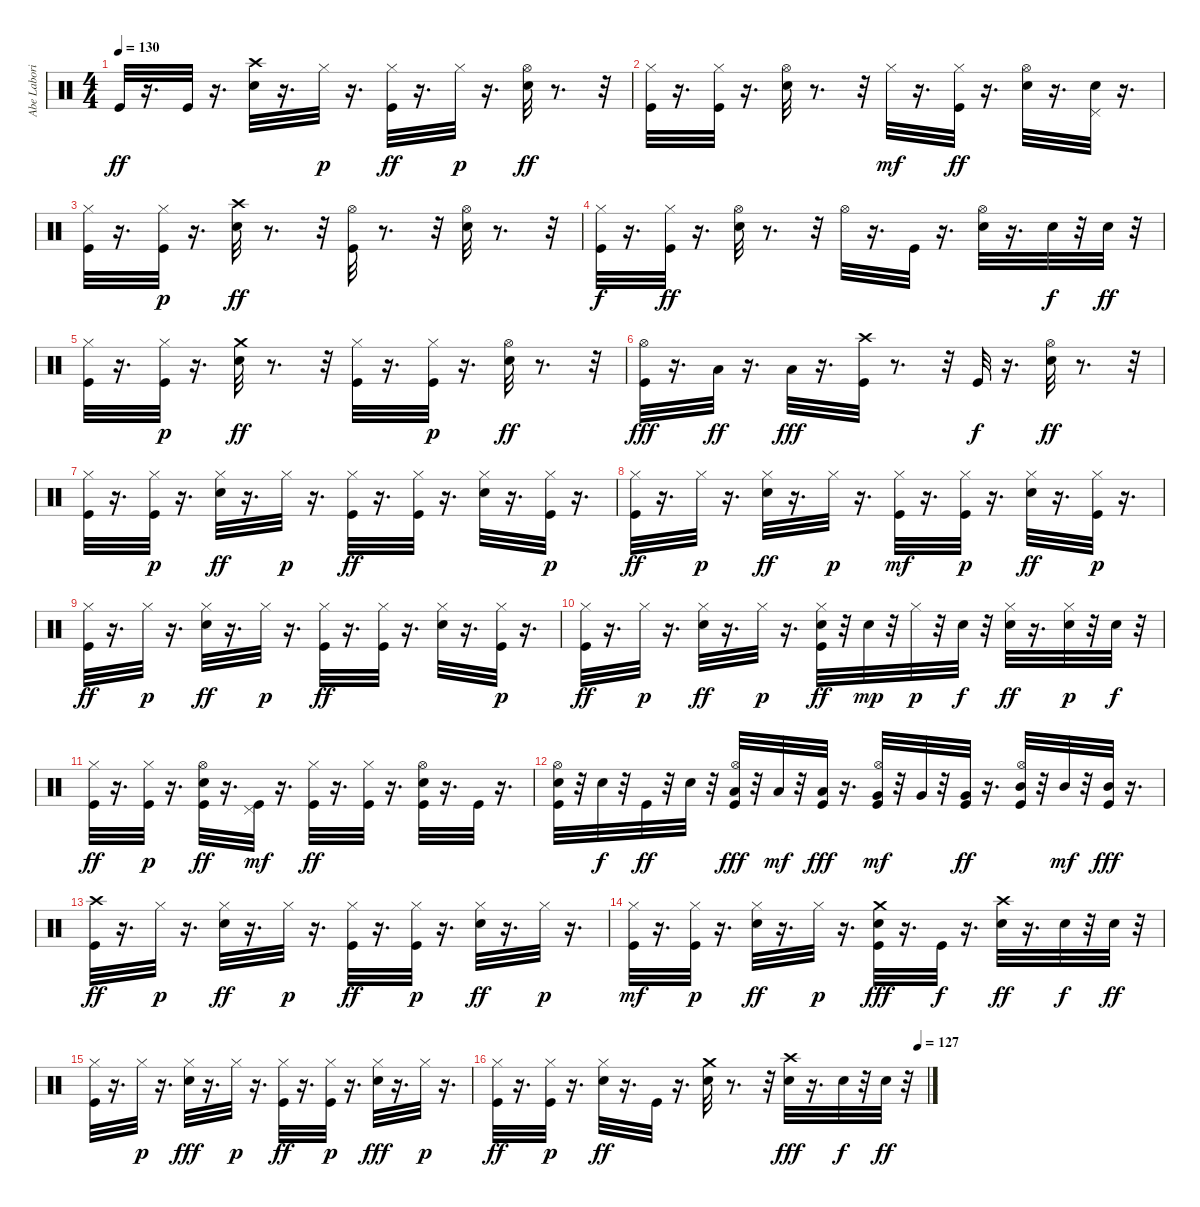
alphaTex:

\track ("Abe Laboriel, Jr." "Abe Labori") {instrument percussion}
\staff {score}
\articulation defaults
\ts (4 4)
\tempo 130
\clef neutral
\ks c "Kick (hit)".32{dy ff}
r.16{d} "Kick (hit)".32 r.16{d} ("Crash high (hit)" "Snare (hit) 2").32 r.16{d} "Hi-Hat (closed)".32{dy p} r.16{d} ("Kick (hit)" "Hi-Hat (closed)").32{dy ff} r.16{d} "Hi-Hat (closed)".32{dy p} r.16{d} ("Hi-Hat (open)" "Snare (hit) 2").32{dy ff} r.8{d} r.32 |
("Kick (hit)" "Hi-Hat (closed)").32 r.16{d} ("Hi-Hat (closed)" "Kick (hit)").32 r.16{d} ("Hi-Hat (open)" "Snare (hit) 2").32 r.8{d} r.32 "Hi-Hat (closed)".32{dy mf} r.16{d} ("Hi-Hat (closed)" "Kick (hit)").32{dy ff} r.16{d} ("Hi-Hat (open)" "Snare (hit) 2").32 r.16{d} ("Snare (hit) 2" "Pedal Hi-Hat (hit)").32 r.16{d} |
("Hi-Hat (closed)" "Kick (hit)").32 r.16{d} ("Kick (hit)" "Hi-Hat (closed)").32{dy p} r.16{d} ("Snare (hit) 2" "Crash high (hit)").32{dy ff} r.8{d} r.32 ("Hi-Hat (open)" "Kick (hit)").32 r.8{d} r.32 ("Snare (hit) 2" "Hi-Hat (open)").32 r.8{d} r.32 |
("Hi-Hat (closed)" "Kick (hit)").32{dy f} r.16{d} ("Hi-Hat (closed)" "Kick (hit)").32{dy ff} r.16{d} ("Hi-Hat (open)" "Snare (hit) 2").32 r.8{d} r.32 "Hi-Hat (open)".32 r.16{d} "Kick (hit)".32 r.16{d} ("Hi-Hat (open)" "Snare (hit) 2").32 r.16{d} "Snare (hit) 2".32{dy f} r.32 "Snare (hit) 2".32{dy ff} r.32 |
("Kick (hit)" "Hi-Hat (closed)").32 r.16{d} ("Kick (hit)" "Hi-Hat (closed)").32{dy p} r.16{d} ("Snare (hit) 2" "Crash medium (hit)").32{dy ff} r.8{d} r.32 ("Hi-Hat (closed)" "Kick (hit)").32 r.16{d} ("Kick (hit)" "Hi-Hat (closed)").32{dy p} r.16{d} ("Hi-Hat (open)" "Snare (hit) 2").32{dy ff} r.8{d} r.32 |
("Hi-Hat (open)" "Kick (hit)").32{dy fff} r.16{d} "Low Tom (hit)".32{dy ff} r.16{d} "Low Tom (hit)".32{dy fff} r.16{d} ("Crash high (hit)" "Kick (hit)").32 r.8{d} r.32 "Kick (hit)".32{dy f} r.16{d} ("Hi-Hat (open)" "Snare (hit) 2").32{dy ff} r.8{d} r.32 |
("Hi-Hat (closed)" "Kick (hit)").32 r.16{d} ("Kick (hit)" "Hi-Hat (closed)").32{dy p} r.16{d} ("Hi-Hat (closed)" "Snare (hit) 2").32{dy ff} r.16{d} "Hi-Hat (closed)".32{dy p} r.16{d} ("Kick (hit)" "Hi-Hat (closed)").32{dy ff} r.16{d} ("Hi-Hat (closed)" "Kick (hit)").32 r.16{d} ("Hi-Hat (closed)" "Snare (hit) 2").32 r.16{d} ("Kick (hit)" "Hi-Hat (closed)").32{dy p} r.16{d} |
("Hi-Hat (closed)" "Kick (hit)").32{dy ff} r.16{d} "Hi-Hat (closed)".32{dy p} r.16{d} ("Snare (hit) 2" "Hi-Hat (closed)").32{dy ff} r.16{d} "Hi-Hat (closed)".32{dy p} r.16{d} ("Kick (hit)" "Hi-Hat (closed)").32{dy mf} r.16{d} ("Kick (hit)" "Hi-Hat (closed)").32{dy p} r.16{d} ("Snare (hit) 2" "Hi-Hat (closed)").32{dy ff} r.16{d} ("Kick (hit)" "Hi-Hat (closed)").32{dy p} r.16{d} |
("Hi-Hat (closed)" "Kick (hit)").32{dy ff} r.16{d} "Hi-Hat (closed)".32{dy p} r.16{d} ("Hi-Hat (closed)" "Snare (hit) 2").32{dy ff} r.16{d} "Hi-Hat (closed)".32{dy p} r.16{d} ("Kick (hit)" "Hi-Hat (closed)").32{dy ff} r.16{d} ("Hi-Hat (closed)" "Kick (hit)").32 r.16{d} ("Hi-Hat (closed)" "Snare (hit) 2").32 r.16{d} ("Kick (hit)" "Hi-Hat (closed)").32{dy p} r.16{d} |
("Kick (hit)" "Hi-Hat (closed)").32{dy ff} r.16{d} "Hi-Hat (closed)".32{dy p} r.16{d} ("Snare (hit) 2" "Hi-Hat (closed)").32{dy ff} r.16{d} "Hi-Hat (closed)".32{dy p} r.16{d} ("Hi-Hat (closed)" "Snare (hit) 2" "Kick (hit)").32{dy ff} r.32 "Snare (hit) 2".32{dy mp} r.32 "Hi-Hat (closed)".32{dy p} r.32 "Snare (hit) 2".32{dy f} r.32 ("Hi-Hat (closed)" "Snare (hit) 2").32{dy ff} r.16{d} ("Snare (hit) 2" "Hi-Hat (closed)").32{dy p} r.32 "Snare (hit) 2".32{dy f} r.32 |
("Hi-Hat (closed)" "Kick (hit)").32{dy ff} r.16{d} ("Kick (hit)" "Hi-Hat (closed)").32{dy p} r.16{d} ("Kick (hit)" "Snare (hit) 2" "Hi-Hat (open)").32{dy ff} r.16{d} ("Kick (hit)" "Pedal Hi-Hat (hit)").32{dy mf} r.16{d} ("Kick (hit)" "Hi-Hat (closed)").32{dy ff} r.16{d} ("Hi-Hat (closed)" "Kick (hit)").32 r.16{d} ("Kick (hit)" "Snare (hit) 2" "Hi-Hat (open)").32 r.16{d} "Kick (hit)".32 r.16{d} |
("Snare (hit) 2" "Hi-Hat (open)" "Kick (hit)").32 r.32 "Snare (hit) 2".32{dy f} r.32 "Kick (hit)".32{dy ff} r.32 "Snare (hit) 2".32 r.32 ("Kick (hit)" "Hi-Hat (open)" "Low Tom (hit)").32{dy fff} r.32 "Low Tom (hit)".32{dy mf} r.32 ("Kick (hit)" "Low Tom (hit)").32{dy fff} r.16{d} ("Kick (hit)" "Very Low Tom (hit)" "Hi-Hat (open)").32{dy mf} r.32 "Very Low Tom (hit)".32 r.32 ("Kick (hit)" "Very Low Tom (hit)").32{dy ff} r.16{d} ("Mid Tom (hit)" "Kick (hit)" "Hi-Hat (open)").32 r.32 "Mid Tom (hit)".32{dy mf} r.32 ("Mid Tom (hit)" "Kick (hit)").32{dy fff} r.16{d} |
("Crash high (hit)" "Kick (hit)").32{dy ff} r.16{d} "Hi-Hat (closed)".32{dy p} r.16{d} ("Hi-Hat (closed)" "Snare (hit) 2").32{dy ff} r.16{d} "Hi-Hat (closed)".32{dy p} r.16{d} ("Hi-Hat (closed)" "Kick (hit)").32{dy ff} r.16{d} ("Hi-Hat (closed)" "Kick (hit)").32{dy p} r.16{d} ("Hi-Hat (closed)" "Snare (hit) 2").32{dy ff} r.16{d} "Hi-Hat (closed)".32{dy p} r.16{d} |
("Kick (hit)" "Hi-Hat (closed)").32{dy mf} r.16{d} ("Hi-Hat (closed)" "Kick (hit)").32{dy p} r.16{d} ("Snare (hit) 2" "Hi-Hat (closed)").32{dy ff} r.16{d} "Hi-Hat (closed)".32{dy p} r.16{d} ("Snare (hit) 2" "Crash medium (hit)" "Kick (hit)").32{dy fff} r.16{d} "Kick (hit)".32{dy f} r.16{d} ("Snare (hit) 2" "Crash high (hit)").32{dy ff} r.16{d} "Snare (hit) 2".32{dy f} r.32 "Snare (hit) 2".32{dy ff} r.32 |
("Kick (hit)" "Hi-Hat (closed)").32 r.16{d} "Hi-Hat (closed)".32{dy p} r.16{d} ("Hi-Hat (closed)" "Snare (hit) 2").32{dy fff} r.16{d} "Hi-Hat (closed)".32{dy p} r.16{d} ("Kick (hit)" "Hi-Hat (closed)").32{dy ff} r.16{d} ("Kick (hit)" "Hi-Hat (closed)").32{dy p} r.16{d} ("Hi-Hat (closed)" "Snare (hit) 2").32{dy fff} r.16{d} "Hi-Hat (closed)".32{dy p} r.16{d} |
\tempo (127 0.9791666666666666)
("Kick (hit)" "Hi-Hat (closed)").32{dy ff} r.16{d} ("Kick (hit)" "Hi-Hat (closed)").32{dy p} r.16{d} ("Hi-Hat (closed)" "Snare (hit) 2").32{dy ff} r.16{d} "Kick (hit)".32 r.16{d} ("Crash medium (hit)" "Snare (hit) 2").32 r.8{d} r.32 ("Crash high (hit)" "Snare (hit) 2").32{dy fff} r.16{d} "Snare (hit) 2".32{dy f} r.32 "Snare (hit) 2".32{dy ff} r.32
